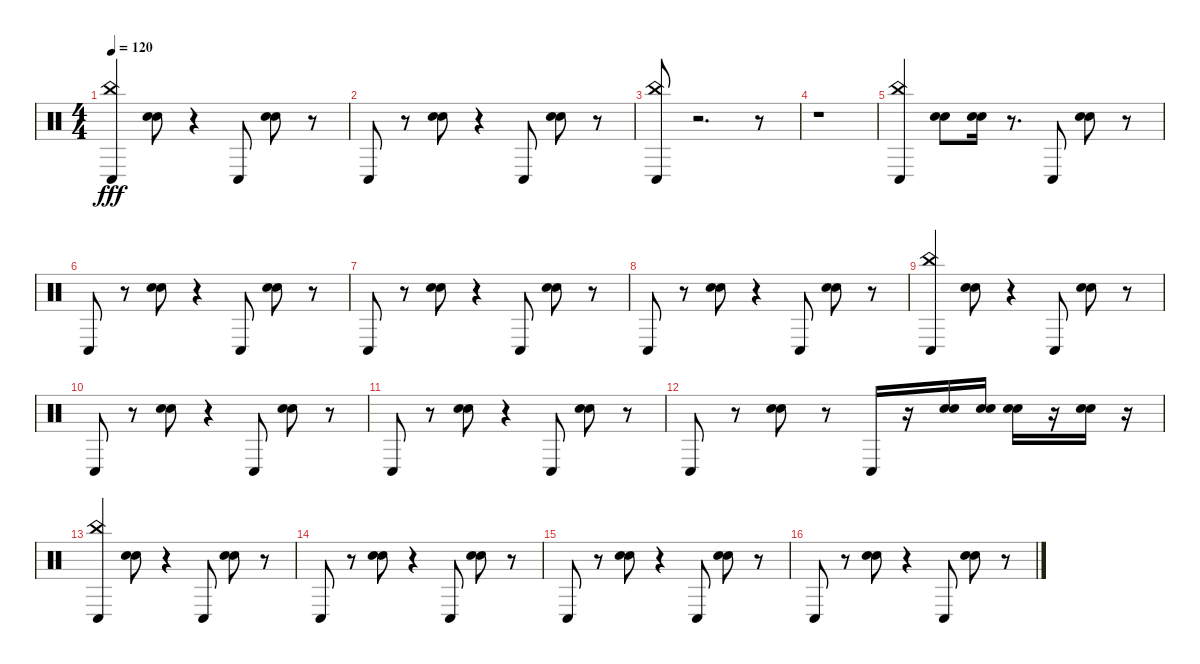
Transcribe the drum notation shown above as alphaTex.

\track "" {instrument percussion}
\staff {score}
\articulation defaults
\ts (4 4)
\tempo 120
\clef neutral
\ks c
("Conga low (hit)" "China (hit)").4{dy fff} ("Snare (hit) 2" "Electric Snare (hit)").8 r.4 "Conga low (hit)".8 ("Electric Snare (hit)" "Snare (hit) 2").8 r.8 |
"Conga low (hit)".8 r.8 ("Electric Snare (hit)" "Snare (hit) 2").8 r.4 "Conga low (hit)".8 ("Electric Snare (hit)" "Snare (hit) 2").8 r.8 |
("Conga low (hit)" "China (hit)").8 r.2{d} r.8 |
r.1 |
("Conga low (hit)" "China (hit)").4 ("Snare (hit) 2" "Electric Snare (hit)").8 ("Snare (hit) 2" "Electric Snare (hit)").16 r.8{d} "Conga low (hit)".8 ("Electric Snare (hit)" "Snare (hit) 2").8 r.8 |
"Conga low (hit)".8 r.8 ("Electric Snare (hit)" "Snare (hit) 2").8 r.4 "Conga low (hit)".8 ("Electric Snare (hit)" "Snare (hit) 2").8 r.8 |
"Conga low (hit)".8 r.8 ("Electric Snare (hit)" "Snare (hit) 2").8 r.4 "Conga low (hit)".8 ("Electric Snare (hit)" "Snare (hit) 2").8 r.8 |
"Conga low (hit)".8 r.8 ("Electric Snare (hit)" "Snare (hit) 2").8 r.4 "Conga low (hit)".8 ("Electric Snare (hit)" "Snare (hit) 2").8 r.8 |
("Conga low (hit)" "China (hit)").4 ("Snare (hit) 2" "Electric Snare (hit)").8 r.4 "Conga low (hit)".8 ("Electric Snare (hit)" "Snare (hit) 2").8 r.8 |
"Conga low (hit)".8 r.8 ("Electric Snare (hit)" "Snare (hit) 2").8 r.4 "Conga low (hit)".8 ("Electric Snare (hit)" "Snare (hit) 2").8 r.8 |
"Conga low (hit)".8 r.8 ("Electric Snare (hit)" "Snare (hit) 2").8 r.4 "Conga low (hit)".8 ("Electric Snare (hit)" "Snare (hit) 2").8 r.8 |
"Conga low (hit)".8 r.8 ("Electric Snare (hit)" "Snare (hit) 2").8 r.8 "Conga low (hit)".16 r.16 ("Electric Snare (hit)" "Snare (hit) 2").16 ("Electric Snare (hit)" "Snare (hit) 2").16 ("Electric Snare (hit)" "Snare (hit) 2").16 r.16 ("Electric Snare (hit)" "Snare (hit) 2").16 r.16 |
("Conga low (hit)" "China (hit)").4 ("Snare (hit) 2" "Electric Snare (hit)").8 r.4 "Conga low (hit)".8 ("Electric Snare (hit)" "Snare (hit) 2").8 r.8 |
"Conga low (hit)".8 r.8 ("Electric Snare (hit)" "Snare (hit) 2").8 r.4 "Conga low (hit)".8 ("Electric Snare (hit)" "Snare (hit) 2").8 r.8 |
"Conga low (hit)".8 r.8 ("Electric Snare (hit)" "Snare (hit) 2").8 r.4 "Conga low (hit)".8 ("Electric Snare (hit)" "Snare (hit) 2").8 r.8 |
"Conga low (hit)".8 r.8 ("Electric Snare (hit)" "Snare (hit) 2").8 r.4 "Conga low (hit)".8 ("Electric Snare (hit)" "Snare (hit) 2").8 r.8
